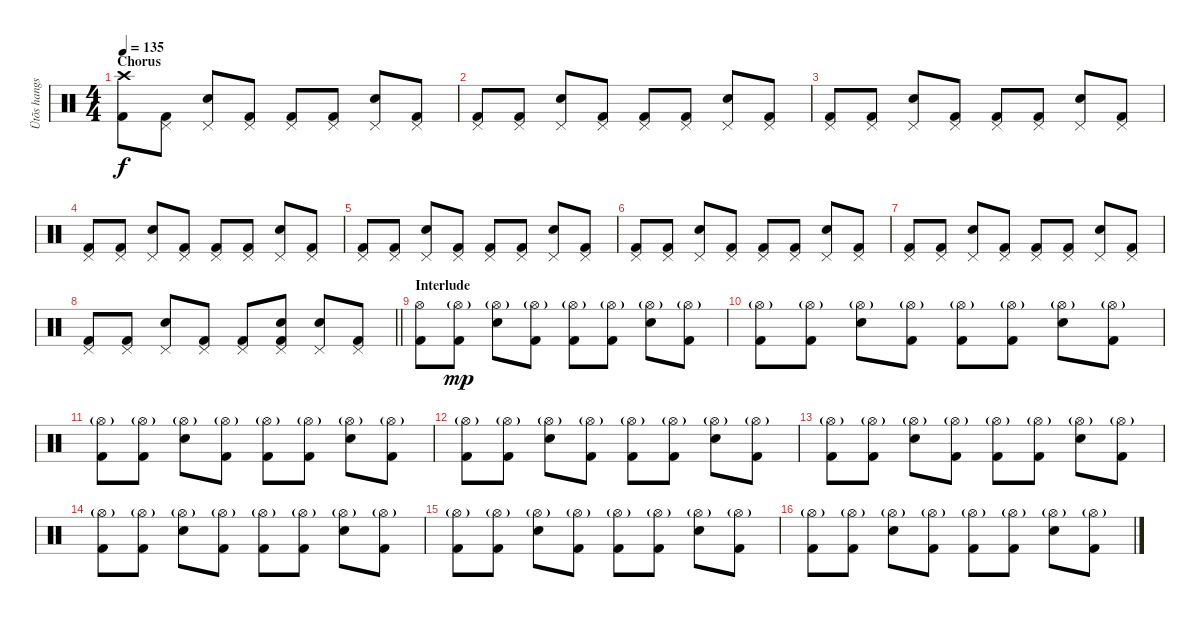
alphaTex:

\track ("Ütõs hangszer" "Ütõs hangs") {instrument percussion}
\staff {score}
\articulation defaults
\ts (4 4)
\section ("" "Chorus")
\tempo 135
\clef neutral
\ks c
("Crash high (hit)" "Kick (hit) 2").8{dy f} ("Pedal Hi-Hat (hit)" "Kick (hit) 2").8 ("Pedal Hi-Hat (hit)" "Electric Snare (hit)").8 ("Pedal Hi-Hat (hit)" "Kick (hit) 2").8 ("Pedal Hi-Hat (hit)" "Kick (hit) 2").8 ("Pedal Hi-Hat (hit)" "Kick (hit) 2").8 ("Pedal Hi-Hat (hit)" "Electric Snare (hit)").8 ("Pedal Hi-Hat (hit)" "Kick (hit) 2").8 |
("Pedal Hi-Hat (hit)" "Kick (hit) 2").8 ("Pedal Hi-Hat (hit)" "Kick (hit) 2").8 ("Pedal Hi-Hat (hit)" "Electric Snare (hit)").8 ("Pedal Hi-Hat (hit)" "Kick (hit) 2").8 ("Pedal Hi-Hat (hit)" "Kick (hit) 2").8 ("Pedal Hi-Hat (hit)" "Kick (hit) 2").8 ("Pedal Hi-Hat (hit)" "Electric Snare (hit)").8 ("Pedal Hi-Hat (hit)" "Kick (hit) 2").8 |
("Pedal Hi-Hat (hit)" "Kick (hit) 2").8 ("Pedal Hi-Hat (hit)" "Kick (hit) 2").8 ("Pedal Hi-Hat (hit)" "Electric Snare (hit)").8 ("Pedal Hi-Hat (hit)" "Kick (hit) 2").8 ("Pedal Hi-Hat (hit)" "Kick (hit) 2").8 ("Pedal Hi-Hat (hit)" "Kick (hit) 2").8 ("Pedal Hi-Hat (hit)" "Electric Snare (hit)").8 ("Pedal Hi-Hat (hit)" "Kick (hit) 2").8 |
("Pedal Hi-Hat (hit)" "Kick (hit) 2").8 ("Pedal Hi-Hat (hit)" "Kick (hit) 2").8 ("Pedal Hi-Hat (hit)" "Electric Snare (hit)").8 ("Pedal Hi-Hat (hit)" "Kick (hit) 2").8 ("Pedal Hi-Hat (hit)" "Kick (hit) 2").8 ("Pedal Hi-Hat (hit)" "Kick (hit) 2").8 ("Pedal Hi-Hat (hit)" "Electric Snare (hit)").8 ("Pedal Hi-Hat (hit)" "Kick (hit) 2").8 |
("Pedal Hi-Hat (hit)" "Kick (hit) 2").8 ("Pedal Hi-Hat (hit)" "Kick (hit) 2").8 ("Pedal Hi-Hat (hit)" "Electric Snare (hit)").8 ("Pedal Hi-Hat (hit)" "Kick (hit) 2").8 ("Pedal Hi-Hat (hit)" "Kick (hit) 2").8 ("Pedal Hi-Hat (hit)" "Kick (hit) 2").8 ("Pedal Hi-Hat (hit)" "Electric Snare (hit)").8 ("Pedal Hi-Hat (hit)" "Kick (hit) 2").8 |
("Pedal Hi-Hat (hit)" "Kick (hit) 2").8 ("Pedal Hi-Hat (hit)" "Kick (hit) 2").8 ("Pedal Hi-Hat (hit)" "Electric Snare (hit)").8 ("Pedal Hi-Hat (hit)" "Kick (hit) 2").8 ("Pedal Hi-Hat (hit)" "Kick (hit) 2").8 ("Pedal Hi-Hat (hit)" "Kick (hit) 2").8 ("Pedal Hi-Hat (hit)" "Electric Snare (hit)").8 ("Pedal Hi-Hat (hit)" "Kick (hit) 2").8 |
("Pedal Hi-Hat (hit)" "Kick (hit) 2").8 ("Pedal Hi-Hat (hit)" "Kick (hit) 2").8 ("Pedal Hi-Hat (hit)" "Electric Snare (hit)").8 ("Pedal Hi-Hat (hit)" "Kick (hit) 2").8 ("Pedal Hi-Hat (hit)" "Kick (hit) 2").8 ("Pedal Hi-Hat (hit)" "Kick (hit) 2").8 ("Pedal Hi-Hat (hit)" "Electric Snare (hit)").8 ("Pedal Hi-Hat (hit)" "Kick (hit) 2").8 |
\barLineRight lightlight
("Pedal Hi-Hat (hit)" "Kick (hit) 2").8 ("Pedal Hi-Hat (hit)" "Kick (hit) 2").8 ("Pedal Hi-Hat (hit)" "Electric Snare (hit)").8 ("Pedal Hi-Hat (hit)" "Kick (hit) 2").8 ("Pedal Hi-Hat (hit)" "Kick (hit) 2").8 ("Pedal Hi-Hat (hit)" "Electric Snare (hit)" "Kick (hit) 2").8 ("Pedal Hi-Hat (hit)" "Electric Snare (hit)").8 ("Pedal Hi-Hat (hit)" "Kick (hit) 2").8 |
\section ("" "Interlude")
("Hi-Hat (open)" "Kick (hit) 2").8 ("Hi-Hat (open)"{g} "Kick (hit) 2").8{dy mp} ("Hi-Hat (open)"{g} "Electric Snare (hit)").8 ("Hi-Hat (open)"{g} "Kick (hit) 2").8 ("Hi-Hat (open)"{g} "Kick (hit) 2").8 ("Hi-Hat (open)"{g} "Kick (hit) 2").8 ("Hi-Hat (open)"{g} "Electric Snare (hit)").8 ("Hi-Hat (open)"{g} "Kick (hit) 2").8 |
("Hi-Hat (open)"{g} "Kick (hit) 2").8 ("Hi-Hat (open)"{g} "Kick (hit) 2").8 ("Hi-Hat (open)"{g} "Electric Snare (hit)").8 ("Hi-Hat (open)"{g} "Kick (hit) 2").8 ("Hi-Hat (open)"{g} "Kick (hit) 2").8 ("Hi-Hat (open)"{g} "Kick (hit) 2").8 ("Hi-Hat (open)"{g} "Electric Snare (hit)").8 ("Hi-Hat (open)"{g} "Kick (hit) 2").8 |
("Hi-Hat (open)"{g} "Kick (hit) 2").8 ("Hi-Hat (open)"{g} "Kick (hit) 2").8 ("Hi-Hat (open)"{g} "Electric Snare (hit)").8 ("Hi-Hat (open)"{g} "Kick (hit) 2").8 ("Hi-Hat (open)"{g} "Kick (hit) 2").8 ("Hi-Hat (open)"{g} "Kick (hit) 2").8 ("Hi-Hat (open)"{g} "Electric Snare (hit)").8 ("Hi-Hat (open)"{g} "Kick (hit) 2").8 |
("Hi-Hat (open)"{g} "Kick (hit) 2").8 ("Hi-Hat (open)"{g} "Kick (hit) 2").8 ("Hi-Hat (open)"{g} "Electric Snare (hit)").8 ("Hi-Hat (open)"{g} "Kick (hit) 2").8 ("Hi-Hat (open)"{g} "Kick (hit) 2").8 ("Hi-Hat (open)"{g} "Kick (hit) 2").8 ("Hi-Hat (open)"{g} "Electric Snare (hit)").8 ("Hi-Hat (open)"{g} "Kick (hit) 2").8 |
("Hi-Hat (open)"{g} "Kick (hit) 2").8 ("Hi-Hat (open)"{g} "Kick (hit) 2").8 ("Hi-Hat (open)"{g} "Electric Snare (hit)").8 ("Hi-Hat (open)"{g} "Kick (hit) 2").8 ("Hi-Hat (open)"{g} "Kick (hit) 2").8 ("Hi-Hat (open)"{g} "Kick (hit) 2").8 ("Hi-Hat (open)"{g} "Electric Snare (hit)").8 ("Hi-Hat (open)"{g} "Kick (hit) 2").8 |
("Hi-Hat (open)"{g} "Kick (hit) 2").8 ("Hi-Hat (open)"{g} "Kick (hit) 2").8 ("Hi-Hat (open)"{g} "Electric Snare (hit)").8 ("Hi-Hat (open)"{g} "Kick (hit) 2").8 ("Hi-Hat (open)"{g} "Kick (hit) 2").8 ("Hi-Hat (open)"{g} "Kick (hit) 2").8 ("Hi-Hat (open)"{g} "Electric Snare (hit)").8 ("Hi-Hat (open)"{g} "Kick (hit) 2").8 |
("Hi-Hat (open)"{g} "Kick (hit) 2").8 ("Hi-Hat (open)"{g} "Kick (hit) 2").8 ("Hi-Hat (open)"{g} "Electric Snare (hit)").8 ("Hi-Hat (open)"{g} "Kick (hit) 2").8 ("Hi-Hat (open)"{g} "Kick (hit) 2").8 ("Hi-Hat (open)"{g} "Kick (hit) 2").8 ("Hi-Hat (open)"{g} "Electric Snare (hit)").8 ("Hi-Hat (open)"{g} "Kick (hit) 2").8 |
("Hi-Hat (open)"{g} "Kick (hit) 2").8 ("Hi-Hat (open)"{g} "Kick (hit) 2").8 ("Hi-Hat (open)"{g} "Electric Snare (hit)").8 ("Hi-Hat (open)"{g} "Kick (hit) 2").8 ("Hi-Hat (open)"{g} "Kick (hit) 2").8 ("Hi-Hat (open)"{g} "Kick (hit) 2").8 ("Hi-Hat (open)"{g} "Electric Snare (hit)").8 ("Hi-Hat (open)"{g} "Kick (hit) 2").8
